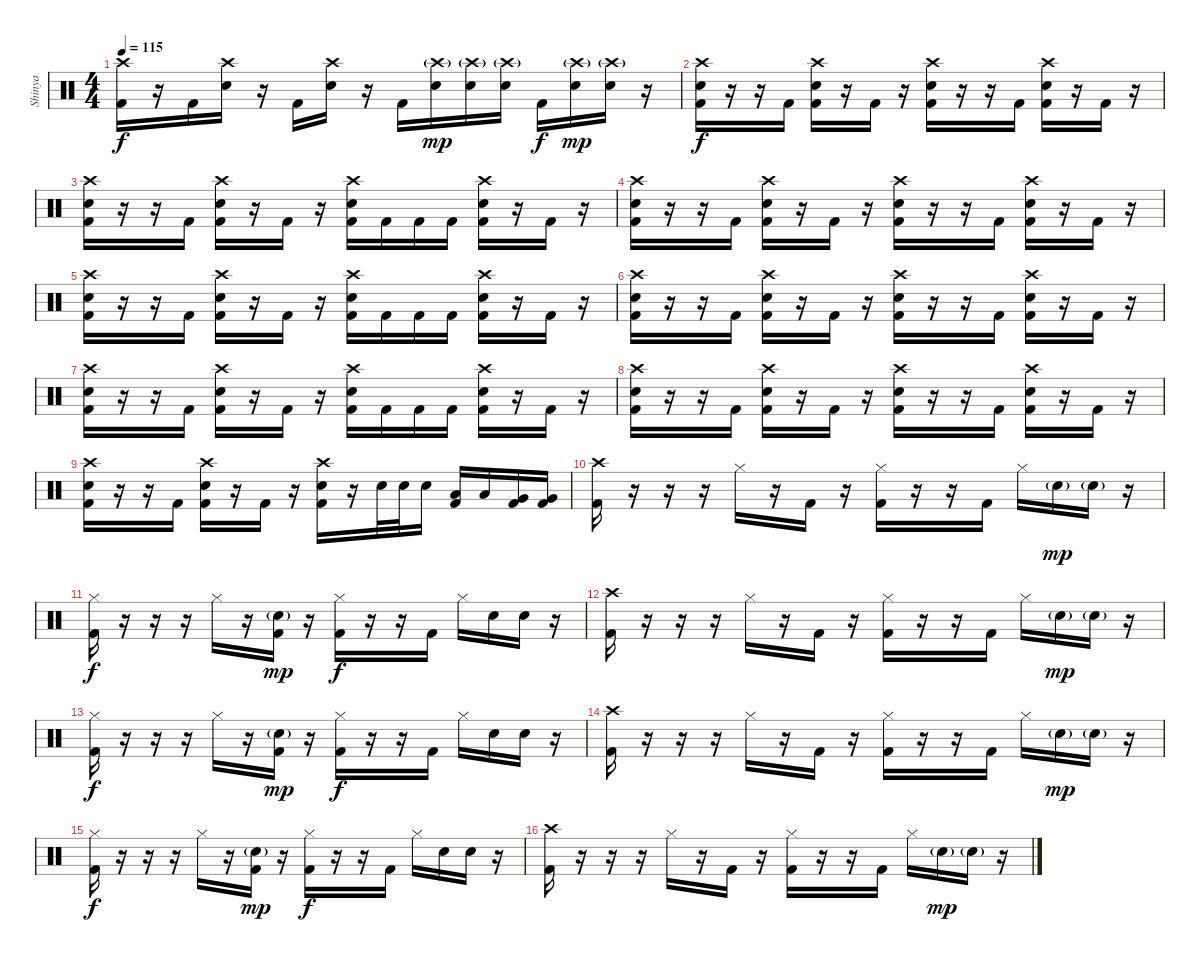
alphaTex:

\track ("Shinya" "Shinya") {instrument percussion}
\staff {score}
\articulation defaults
\ts (4 4)
\tempo 115
\clef neutral
\ks c
("Crash high (hit)" "Kick (hit) 2").16{dy f} r.16 "Kick (hit) 2".16 ("Crash high (hit)" "Electric Snare (hit)").16 r.16 "Kick (hit) 2".16 ("Crash high (hit)" "Electric Snare (hit)").16 r.16 "Kick (hit) 2".16 ("Crash high (hit)"{g} "Electric Snare (hit)").16{dy mp} ("Crash high (hit)"{g} "Electric Snare (hit)").16 ("Crash high (hit)"{g} "Electric Snare (hit)").16 "Kick (hit) 2".16{dy f} ("Crash high (hit)"{g} "Electric Snare (hit)").16{dy mp} ("Crash high (hit)"{g} "Electric Snare (hit)").16 r.16 |
("Crash high (hit)" "Electric Snare (hit)" "Kick (hit) 2").16{dy f} r.16 r.16 "Kick (hit) 2".16 ("Crash high (hit)" "Electric Snare (hit)" "Kick (hit) 2").16 r.16 "Kick (hit) 2".16 r.16 ("Crash high (hit)" "Electric Snare (hit)" "Kick (hit) 2").16 r.16 r.16 "Kick (hit) 2".16 ("Crash high (hit)" "Electric Snare (hit)" "Kick (hit) 2").16 r.16 "Kick (hit) 2".16 r.16 |
("Crash high (hit)" "Electric Snare (hit)" "Kick (hit) 2").16 r.16 r.16 "Kick (hit) 2".16 ("Crash high (hit)" "Electric Snare (hit)" "Kick (hit) 2").16 r.16 "Kick (hit) 2".16 r.16 ("Crash high (hit)" "Electric Snare (hit)" "Kick (hit) 2").16 "Kick (hit) 2".16 "Kick (hit) 2".16 "Kick (hit) 2".16 ("Crash high (hit)" "Electric Snare (hit)" "Kick (hit) 2").16 r.16 "Kick (hit) 2".16 r.16 |
("Crash high (hit)" "Electric Snare (hit)" "Kick (hit) 2").16 r.16 r.16 "Kick (hit) 2".16 ("Crash high (hit)" "Electric Snare (hit)" "Kick (hit) 2").16 r.16 "Kick (hit) 2".16 r.16 ("Crash high (hit)" "Electric Snare (hit)" "Kick (hit) 2").16 r.16 r.16 "Kick (hit) 2".16 ("Crash high (hit)" "Electric Snare (hit)" "Kick (hit) 2").16 r.16 "Kick (hit) 2".16 r.16 |
("Crash high (hit)" "Electric Snare (hit)" "Kick (hit) 2").16 r.16 r.16 "Kick (hit) 2".16 ("Crash high (hit)" "Electric Snare (hit)" "Kick (hit) 2").16 r.16 "Kick (hit) 2".16 r.16 ("Crash high (hit)" "Electric Snare (hit)" "Kick (hit) 2").16 "Kick (hit) 2".16 "Kick (hit) 2".16 "Kick (hit) 2".16 ("Crash high (hit)" "Electric Snare (hit)" "Kick (hit) 2").16 r.16 "Kick (hit) 2".16 r.16 |
("Crash high (hit)" "Electric Snare (hit)" "Kick (hit) 2").16 r.16 r.16 "Kick (hit) 2".16 ("Crash high (hit)" "Electric Snare (hit)" "Kick (hit) 2").16 r.16 "Kick (hit) 2".16 r.16 ("Crash high (hit)" "Electric Snare (hit)" "Kick (hit) 2").16 r.16 r.16 "Kick (hit) 2".16 ("Crash high (hit)" "Electric Snare (hit)" "Kick (hit) 2").16 r.16 "Kick (hit) 2".16 r.16 |
("Crash high (hit)" "Electric Snare (hit)" "Kick (hit) 2").16 r.16 r.16 "Kick (hit) 2".16 ("Crash high (hit)" "Electric Snare (hit)" "Kick (hit) 2").16 r.16 "Kick (hit) 2".16 r.16 ("Crash high (hit)" "Electric Snare (hit)" "Kick (hit) 2").16 "Kick (hit) 2".16 "Kick (hit) 2".16 "Kick (hit) 2".16 ("Crash high (hit)" "Electric Snare (hit)" "Kick (hit) 2").16 r.16 "Kick (hit) 2".16 r.16 |
("Crash high (hit)" "Electric Snare (hit)" "Kick (hit) 2").16 r.16 r.16 "Kick (hit) 2".16 ("Crash high (hit)" "Electric Snare (hit)" "Kick (hit) 2").16 r.16 "Kick (hit) 2".16 r.16 ("Crash high (hit)" "Electric Snare (hit)" "Kick (hit) 2").16 r.16 r.16 "Kick (hit) 2".16 ("Crash high (hit)" "Electric Snare (hit)" "Kick (hit) 2").16 r.16 "Kick (hit) 2".16 r.16 |
("Crash high (hit)" "Electric Snare (hit)" "Kick (hit) 2").16 r.16 r.16 "Kick (hit) 2".16 ("Crash high (hit)" "Electric Snare (hit)" "Kick (hit) 2").16 r.16 "Kick (hit) 2".16 r.16 ("Crash high (hit)" "Electric Snare (hit)" "Kick (hit) 2").16 r.16 "Electric Snare (hit)".32 "Electric Snare (hit)".32 "Electric Snare (hit)".16 ("Low Tom (hit)" "Kick (hit) 2").16 "Low Tom (hit)".16 ("Very Low Tom (hit)" "Kick (hit) 2").16 ("Very Low Tom (hit)" "Kick (hit) 2").16 |
("Crash high (hit)" "Kick (hit) 2").16 r.16 r.16 r.16 "Hi-Hat (closed)".16 r.16 "Kick (hit) 2".16 r.16 ("Hi-Hat (closed)" "Kick (hit) 2").16 r.16 r.16 "Kick (hit) 2".16 "Hi-Hat (closed)".16 "Electric Snare (hit)"{g}.16{dy mp} "Electric Snare (hit)"{g}.16 r.16 |
("Hi-Hat (closed)" "Kick (hit) 2").16{dy f} r.16 r.16 r.16 "Hi-Hat (closed)".16 r.16 ("Electric Snare (hit)"{g} "Kick (hit) 2").16{dy mp} r.16 ("Hi-Hat (closed)" "Kick (hit) 2").16{dy f} r.16 r.16 "Kick (hit) 2".16 "Hi-Hat (closed)".16 "Electric Snare (hit)".16 "Electric Snare (hit)".16 r.16 |
("Crash high (hit)" "Kick (hit) 2").16 r.16 r.16 r.16 "Hi-Hat (closed)".16 r.16 "Kick (hit) 2".16 r.16 ("Hi-Hat (closed)" "Kick (hit) 2").16 r.16 r.16 "Kick (hit) 2".16 "Hi-Hat (closed)".16 "Electric Snare (hit)"{g}.16{dy mp} "Electric Snare (hit)"{g}.16 r.16 |
("Hi-Hat (closed)" "Kick (hit) 2").16{dy f} r.16 r.16 r.16 "Hi-Hat (closed)".16 r.16 ("Electric Snare (hit)"{g} "Kick (hit) 2").16{dy mp} r.16 ("Hi-Hat (closed)" "Kick (hit) 2").16{dy f} r.16 r.16 "Kick (hit) 2".16 "Hi-Hat (closed)".16 "Electric Snare (hit)".16 "Electric Snare (hit)".16 r.16 |
("Crash high (hit)" "Kick (hit) 2").16 r.16 r.16 r.16 "Hi-Hat (closed)".16 r.16 "Kick (hit) 2".16 r.16 ("Hi-Hat (closed)" "Kick (hit) 2").16 r.16 r.16 "Kick (hit) 2".16 "Hi-Hat (closed)".16 "Electric Snare (hit)"{g}.16{dy mp} "Electric Snare (hit)"{g}.16 r.16 |
("Hi-Hat (closed)" "Kick (hit) 2").16{dy f} r.16 r.16 r.16 "Hi-Hat (closed)".16 r.16 ("Electric Snare (hit)"{g} "Kick (hit) 2").16{dy mp} r.16 ("Hi-Hat (closed)" "Kick (hit) 2").16{dy f} r.16 r.16 "Kick (hit) 2".16 "Hi-Hat (closed)".16 "Electric Snare (hit)".16 "Electric Snare (hit)".16 r.16 |
("Crash high (hit)" "Kick (hit) 2").16 r.16 r.16 r.16 "Hi-Hat (closed)".16 r.16 "Kick (hit) 2".16 r.16 ("Hi-Hat (closed)" "Kick (hit) 2").16 r.16 r.16 "Kick (hit) 2".16 "Hi-Hat (closed)".16 "Electric Snare (hit)"{g}.16{dy mp} "Electric Snare (hit)"{g}.16 r.16
